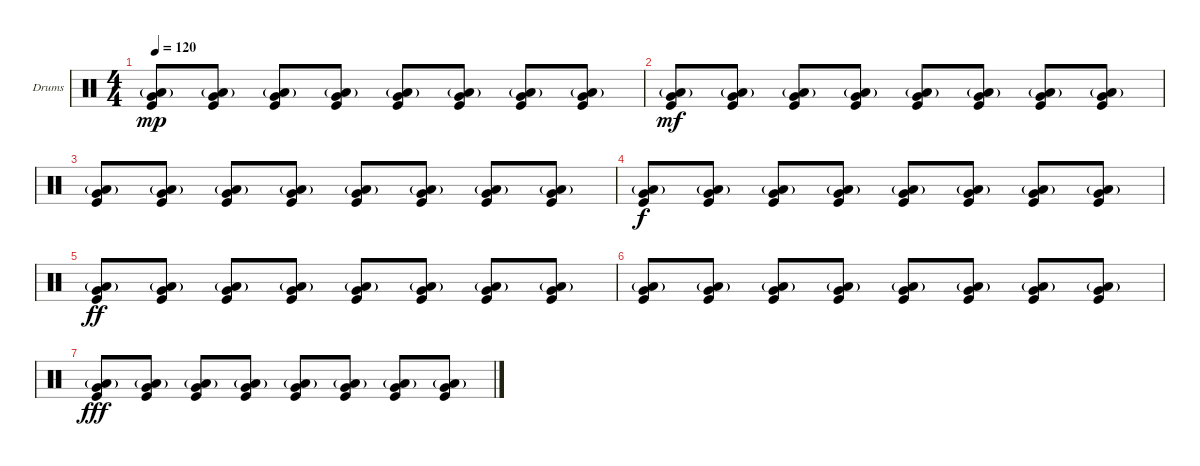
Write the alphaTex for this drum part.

\defaultSystemsLayout 4
\bracketExtendMode groupsimilarinstruments
\firstSystemTrackNameOrientation horizontal
\otherSystemsTrackNameOrientation horizontal
\track ("Drumkit" "Drums") {instrument percussion}
\staff {score}
\articulation defaults
\ts (4 4)
\tempo 120
\clef neutral
\ks c
("Very Low Tom (hit)" "Low Tom (hit)"{g} "Kick (hit)").8{dy mp} ("Very Low Tom (hit)" "Low Tom (hit)"{g} "Kick (hit)").8 ("Very Low Tom (hit)" "Low Tom (hit)"{g} "Kick (hit)").8 ("Very Low Tom (hit)" "Low Tom (hit)"{g} "Kick (hit)").8 ("Very Low Tom (hit)" "Low Tom (hit)"{g} "Kick (hit)").8 ("Very Low Tom (hit)" "Low Tom (hit)"{g} "Kick (hit)").8 ("Very Low Tom (hit)" "Low Tom (hit)"{g} "Kick (hit)").8 ("Very Low Tom (hit)" "Low Tom (hit)"{g} "Kick (hit)").8 |
("Very Low Tom (hit)" "Low Tom (hit)"{g} "Kick (hit)").8{dy mf} ("Very Low Tom (hit)" "Low Tom (hit)"{g} "Kick (hit)").8 ("Very Low Tom (hit)" "Low Tom (hit)"{g} "Kick (hit)").8 ("Very Low Tom (hit)" "Low Tom (hit)"{g} "Kick (hit)").8 ("Very Low Tom (hit)" "Low Tom (hit)"{g} "Kick (hit)").8 ("Very Low Tom (hit)" "Low Tom (hit)"{g} "Kick (hit)").8 ("Very Low Tom (hit)" "Low Tom (hit)"{g} "Kick (hit)").8 ("Very Low Tom (hit)" "Low Tom (hit)"{g} "Kick (hit)").8 |
("Very Low Tom (hit)" "Low Tom (hit)"{g} "Kick (hit)").8 ("Very Low Tom (hit)" "Low Tom (hit)"{g} "Kick (hit)").8 ("Very Low Tom (hit)" "Low Tom (hit)"{g} "Kick (hit)").8 ("Very Low Tom (hit)" "Low Tom (hit)"{g} "Kick (hit)").8 ("Very Low Tom (hit)" "Low Tom (hit)"{g} "Kick (hit)").8 ("Very Low Tom (hit)" "Low Tom (hit)"{g} "Kick (hit)").8 ("Very Low Tom (hit)" "Low Tom (hit)"{g} "Kick (hit)").8 ("Very Low Tom (hit)" "Low Tom (hit)"{g} "Kick (hit)").8 |
("Very Low Tom (hit)" "Low Tom (hit)"{g} "Kick (hit)").8{dy f} ("Very Low Tom (hit)" "Low Tom (hit)"{g} "Kick (hit)").8 ("Very Low Tom (hit)" "Low Tom (hit)"{g} "Kick (hit)").8 ("Very Low Tom (hit)" "Low Tom (hit)"{g} "Kick (hit)").8 ("Very Low Tom (hit)" "Low Tom (hit)"{g} "Kick (hit)").8 ("Very Low Tom (hit)" "Low Tom (hit)"{g} "Kick (hit)").8 ("Very Low Tom (hit)" "Low Tom (hit)"{g} "Kick (hit)").8 ("Very Low Tom (hit)" "Low Tom (hit)"{g} "Kick (hit)").8 |
("Very Low Tom (hit)" "Low Tom (hit)"{g} "Kick (hit)").8{dy ff} ("Very Low Tom (hit)" "Low Tom (hit)"{g} "Kick (hit)").8 ("Very Low Tom (hit)" "Low Tom (hit)"{g} "Kick (hit)").8 ("Very Low Tom (hit)" "Low Tom (hit)"{g} "Kick (hit)").8 ("Very Low Tom (hit)" "Low Tom (hit)"{g} "Kick (hit)").8 ("Very Low Tom (hit)" "Low Tom (hit)"{g} "Kick (hit)").8 ("Very Low Tom (hit)" "Low Tom (hit)"{g} "Kick (hit)").8 ("Very Low Tom (hit)" "Low Tom (hit)"{g} "Kick (hit)").8 |
("Very Low Tom (hit)" "Low Tom (hit)"{g} "Kick (hit)").8 ("Very Low Tom (hit)" "Low Tom (hit)"{g} "Kick (hit)").8 ("Very Low Tom (hit)" "Low Tom (hit)"{g} "Kick (hit)").8 ("Very Low Tom (hit)" "Low Tom (hit)"{g} "Kick (hit)").8 ("Very Low Tom (hit)" "Low Tom (hit)"{g} "Kick (hit)").8 ("Very Low Tom (hit)" "Low Tom (hit)"{g} "Kick (hit)").8 ("Very Low Tom (hit)" "Low Tom (hit)"{g} "Kick (hit)").8 ("Very Low Tom (hit)" "Low Tom (hit)"{g} "Kick (hit)").8 |
("Very Low Tom (hit)" "Low Tom (hit)"{g} "Kick (hit)").8{dy fff} ("Very Low Tom (hit)" "Low Tom (hit)"{g} "Kick (hit)").8 ("Very Low Tom (hit)" "Low Tom (hit)"{g} "Kick (hit)").8 ("Very Low Tom (hit)" "Low Tom (hit)"{g} "Kick (hit)").8 ("Very Low Tom (hit)" "Low Tom (hit)"{g} "Kick (hit)").8 ("Very Low Tom (hit)" "Low Tom (hit)"{g} "Kick (hit)").8 ("Very Low Tom (hit)" "Low Tom (hit)"{g} "Kick (hit)").8 ("Very Low Tom (hit)" "Low Tom (hit)"{g} "Kick (hit)").8
